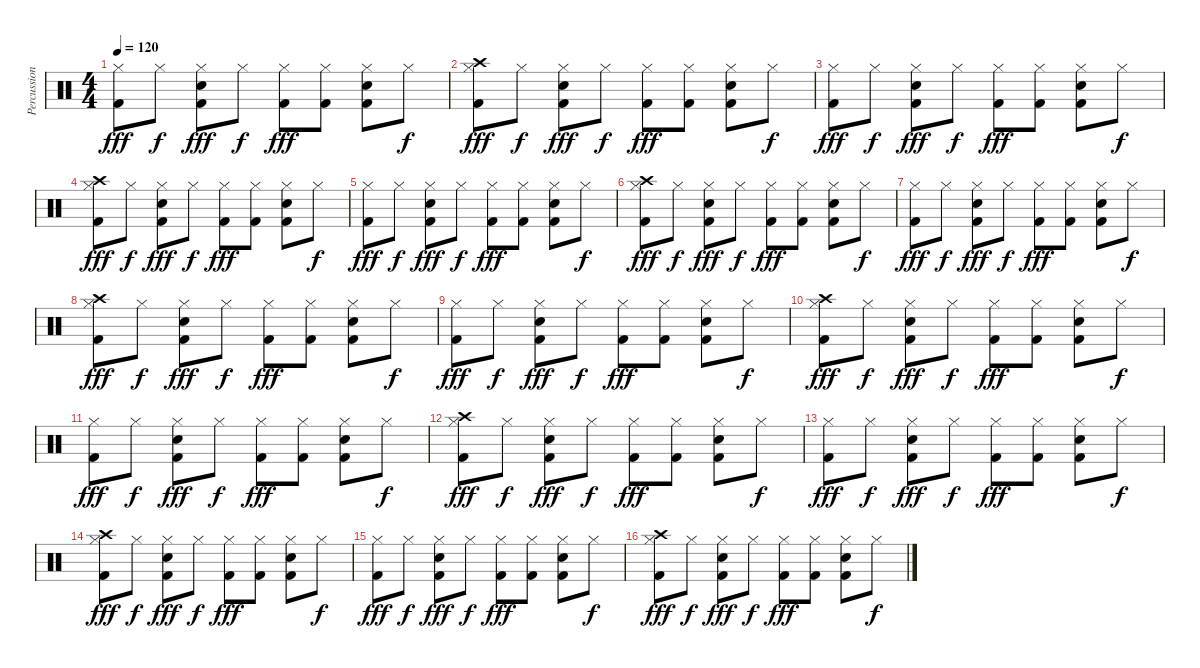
\track ("Percussion: Steve Walchoz" "Percussion") {instrument percussion}
\staff {score}
\articulation defaults
\ts (4 4)
\tempo 120
\clef neutral
\ks c
("Hi-Hat (closed)" "Kick (hit) 2").8{dy fff} "Hi-Hat (closed)".8{dy f} ("Hi-Hat (closed)" "Snare (hit) 2" "Kick (hit) 2").8{dy fff} "Hi-Hat (closed)".8{dy f} ("Hi-Hat (closed)" "Kick (hit) 2").8{dy fff} ("Hi-Hat (closed)" "Kick (hit) 2").8 ("Hi-Hat (closed)" "Snare (hit) 2" "Kick (hit) 2").8 "Hi-Hat (closed)".8{dy f} |
("Crash high (hit)" "Hi-Hat (closed)" "Kick (hit) 2").8{dy fff} "Hi-Hat (closed)".8{dy f} ("Hi-Hat (closed)" "Snare (hit) 2" "Kick (hit) 2").8{dy fff} "Hi-Hat (closed)".8{dy f} ("Hi-Hat (closed)" "Kick (hit) 2").8{dy fff} ("Hi-Hat (closed)" "Kick (hit) 2").8 ("Hi-Hat (closed)" "Snare (hit) 2" "Kick (hit) 2").8 "Hi-Hat (closed)".8{dy f} |
("Hi-Hat (closed)" "Kick (hit) 2").8{dy fff} "Hi-Hat (closed)".8{dy f} ("Hi-Hat (closed)" "Snare (hit) 2" "Kick (hit) 2").8{dy fff} "Hi-Hat (closed)".8{dy f} ("Hi-Hat (closed)" "Kick (hit) 2").8{dy fff} ("Hi-Hat (closed)" "Kick (hit) 2").8 ("Hi-Hat (closed)" "Snare (hit) 2" "Kick (hit) 2").8 "Hi-Hat (closed)".8{dy f} |
("Crash high (hit)" "Hi-Hat (closed)" "Kick (hit) 2").8{dy fff} "Hi-Hat (closed)".8{dy f} ("Hi-Hat (closed)" "Snare (hit) 2" "Kick (hit) 2").8{dy fff} "Hi-Hat (closed)".8{dy f} ("Hi-Hat (closed)" "Kick (hit) 2").8{dy fff} ("Hi-Hat (closed)" "Kick (hit) 2").8 ("Hi-Hat (closed)" "Snare (hit) 2" "Kick (hit) 2").8 "Hi-Hat (closed)".8{dy f} |
("Hi-Hat (closed)" "Kick (hit) 2").8{dy fff} "Hi-Hat (closed)".8{dy f} ("Hi-Hat (closed)" "Snare (hit) 2" "Kick (hit) 2").8{dy fff} "Hi-Hat (closed)".8{dy f} ("Hi-Hat (closed)" "Kick (hit) 2").8{dy fff} ("Hi-Hat (closed)" "Kick (hit) 2").8 ("Hi-Hat (closed)" "Snare (hit) 2" "Kick (hit) 2").8 "Hi-Hat (closed)".8{dy f} |
("Crash high (hit)" "Hi-Hat (closed)" "Kick (hit) 2").8{dy fff} "Hi-Hat (closed)".8{dy f} ("Hi-Hat (closed)" "Snare (hit) 2" "Kick (hit) 2").8{dy fff} "Hi-Hat (closed)".8{dy f} ("Hi-Hat (closed)" "Kick (hit) 2").8{dy fff} ("Hi-Hat (closed)" "Kick (hit) 2").8 ("Hi-Hat (closed)" "Snare (hit) 2" "Kick (hit) 2").8 "Hi-Hat (closed)".8{dy f} |
("Hi-Hat (closed)" "Kick (hit) 2").8{dy fff} "Hi-Hat (closed)".8{dy f} ("Hi-Hat (closed)" "Snare (hit) 2" "Kick (hit) 2").8{dy fff} "Hi-Hat (closed)".8{dy f} ("Hi-Hat (closed)" "Kick (hit) 2").8{dy fff} ("Hi-Hat (closed)" "Kick (hit) 2").8 ("Hi-Hat (closed)" "Snare (hit) 2" "Kick (hit) 2").8 "Hi-Hat (closed)".8{dy f} |
("Crash high (hit)" "Hi-Hat (closed)" "Kick (hit) 2").8{dy fff} "Hi-Hat (closed)".8{dy f} ("Hi-Hat (closed)" "Snare (hit) 2" "Kick (hit) 2").8{dy fff} "Hi-Hat (closed)".8{dy f} ("Hi-Hat (closed)" "Kick (hit) 2").8{dy fff} ("Hi-Hat (closed)" "Kick (hit) 2").8 ("Hi-Hat (closed)" "Snare (hit) 2" "Kick (hit) 2").8 "Hi-Hat (closed)".8{dy f} |
("Hi-Hat (closed)" "Kick (hit) 2").8{dy fff} "Hi-Hat (closed)".8{dy f} ("Hi-Hat (closed)" "Snare (hit) 2" "Kick (hit) 2").8{dy fff} "Hi-Hat (closed)".8{dy f} ("Hi-Hat (closed)" "Kick (hit) 2").8{dy fff} ("Hi-Hat (closed)" "Kick (hit) 2").8 ("Hi-Hat (closed)" "Snare (hit) 2" "Kick (hit) 2").8 "Hi-Hat (closed)".8{dy f} |
("Crash high (hit)" "Hi-Hat (closed)" "Kick (hit) 2").8{dy fff} "Hi-Hat (closed)".8{dy f} ("Hi-Hat (closed)" "Snare (hit) 2" "Kick (hit) 2").8{dy fff} "Hi-Hat (closed)".8{dy f} ("Hi-Hat (closed)" "Kick (hit) 2").8{dy fff} ("Hi-Hat (closed)" "Kick (hit) 2").8 ("Hi-Hat (closed)" "Snare (hit) 2" "Kick (hit) 2").8 "Hi-Hat (closed)".8{dy f} |
("Hi-Hat (closed)" "Kick (hit) 2").8{dy fff} "Hi-Hat (closed)".8{dy f} ("Hi-Hat (closed)" "Snare (hit) 2" "Kick (hit) 2").8{dy fff} "Hi-Hat (closed)".8{dy f} ("Hi-Hat (closed)" "Kick (hit) 2").8{dy fff} ("Hi-Hat (closed)" "Kick (hit) 2").8 ("Hi-Hat (closed)" "Snare (hit) 2" "Kick (hit) 2").8 "Hi-Hat (closed)".8{dy f} |
("Crash high (hit)" "Hi-Hat (closed)" "Kick (hit) 2").8{dy fff} "Hi-Hat (closed)".8{dy f} ("Hi-Hat (closed)" "Snare (hit) 2" "Kick (hit) 2").8{dy fff} "Hi-Hat (closed)".8{dy f} ("Hi-Hat (closed)" "Kick (hit) 2").8{dy fff} ("Hi-Hat (closed)" "Kick (hit) 2").8 ("Hi-Hat (closed)" "Snare (hit) 2" "Kick (hit) 2").8 "Hi-Hat (closed)".8{dy f} |
("Hi-Hat (closed)" "Kick (hit) 2").8{dy fff} "Hi-Hat (closed)".8{dy f} ("Hi-Hat (closed)" "Snare (hit) 2" "Kick (hit) 2").8{dy fff} "Hi-Hat (closed)".8{dy f} ("Hi-Hat (closed)" "Kick (hit) 2").8{dy fff} ("Hi-Hat (closed)" "Kick (hit) 2").8 ("Hi-Hat (closed)" "Snare (hit) 2" "Kick (hit) 2").8 "Hi-Hat (closed)".8{dy f} |
("Crash high (hit)" "Hi-Hat (closed)" "Kick (hit) 2").8{dy fff} "Hi-Hat (closed)".8{dy f} ("Hi-Hat (closed)" "Snare (hit) 2" "Kick (hit) 2").8{dy fff} "Hi-Hat (closed)".8{dy f} ("Hi-Hat (closed)" "Kick (hit) 2").8{dy fff} ("Hi-Hat (closed)" "Kick (hit) 2").8 ("Hi-Hat (closed)" "Snare (hit) 2" "Kick (hit) 2").8 "Hi-Hat (closed)".8{dy f} |
("Hi-Hat (closed)" "Kick (hit) 2").8{dy fff} "Hi-Hat (closed)".8{dy f} ("Hi-Hat (closed)" "Snare (hit) 2" "Kick (hit) 2").8{dy fff} "Hi-Hat (closed)".8{dy f} ("Hi-Hat (closed)" "Kick (hit) 2").8{dy fff} ("Hi-Hat (closed)" "Kick (hit) 2").8 ("Hi-Hat (closed)" "Snare (hit) 2" "Kick (hit) 2").8 "Hi-Hat (closed)".8{dy f} |
("Crash high (hit)" "Hi-Hat (closed)" "Kick (hit) 2").8{dy fff} "Hi-Hat (closed)".8{dy f} ("Hi-Hat (closed)" "Snare (hit) 2" "Kick (hit) 2").8{dy fff} "Hi-Hat (closed)".8{dy f} ("Hi-Hat (closed)" "Kick (hit) 2").8{dy fff} ("Hi-Hat (closed)" "Kick (hit) 2").8 ("Hi-Hat (closed)" "Snare (hit) 2" "Kick (hit) 2").8 "Hi-Hat (closed)".8{dy f}
